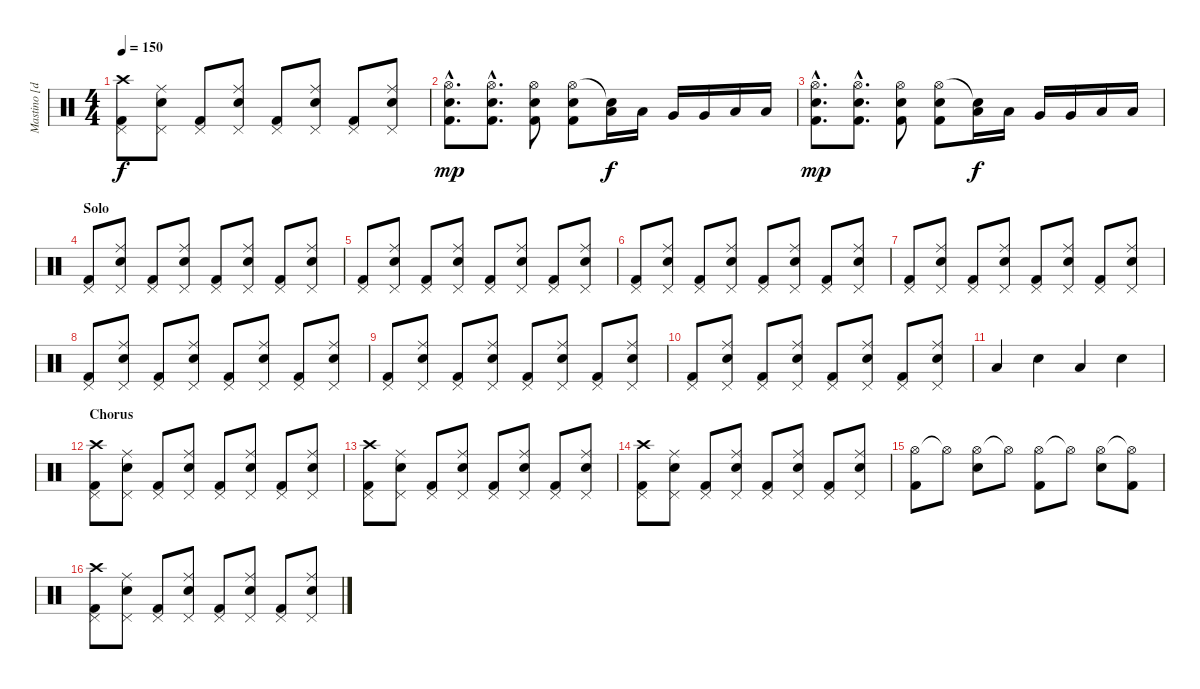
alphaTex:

\track ("Mastino [drums]" "Mastino [d") {instrument percussion}
\staff {score}
\articulation defaults
\ts (4 4)
\tempo 150
\clef neutral
\ks c
("Crash high (hit)" "Pedal Hi-Hat (hit)" "Kick (hit) 2").8{dy f} ("Ride (middle)" "Pedal Hi-Hat (hit)" "Electric Snare (hit)").8 ("Pedal Hi-Hat (hit)" "Kick (hit) 2").8 ("Ride (middle)" "Pedal Hi-Hat (hit)" "Electric Snare (hit)").8 ("Pedal Hi-Hat (hit)" "Kick (hit) 2").8 ("Ride (middle)" "Pedal Hi-Hat (hit)" "Electric Snare (hit)").8 ("Pedal Hi-Hat (hit)" "Kick (hit) 2").8 ("Ride (middle)" "Pedal Hi-Hat (hit)" "Electric Snare (hit)").8 |
("Hi-Hat (open)"{hac} "Electric Snare (hit)"{hac} "Kick (hit) 2"{hac}).8{d dy mp} ("Hi-Hat (open)"{hac} "Electric Snare (hit)"{hac} "Kick (hit) 2"{hac}).8{d} ("Hi-Hat (open)" "Electric Snare (hit)" "Kick (hit) 2").8 ("Hi-Hat (open)" "Kick (hit) 2" "Electric Snare (hit)").8 ("Snare (hit)"{t} "Low Tom (hit)").16{dy f} "Low Tom (hit)".16 "Very Low Tom (hit)".16 "Very Low Tom (hit)".16 "Low Floor Tom (hit)".16 "Low Floor Tom (hit)".16 |
("Hi-Hat (open)"{hac} "Electric Snare (hit)"{hac} "Kick (hit) 2"{hac}).8{d dy mp} ("Hi-Hat (open)"{hac} "Electric Snare (hit)"{hac} "Kick (hit) 2"{hac}).8{d} ("Hi-Hat (open)" "Electric Snare (hit)" "Kick (hit) 2").8 ("Hi-Hat (open)" "Kick (hit) 2" "Electric Snare (hit)").8 ("Snare (hit)"{t} "Low Tom (hit)").16{dy f} "Low Tom (hit)".16 "Very Low Tom (hit)".16 "Very Low Tom (hit)".16 "Low Floor Tom (hit)".16 "Low Floor Tom (hit)".16 |
\section ("" "Solo")
("Pedal Hi-Hat (hit)" "Kick (hit) 2").8 ("Ride (middle)" "Pedal Hi-Hat (hit)" "Electric Snare (hit)").8 ("Pedal Hi-Hat (hit)" "Kick (hit) 2").8 ("Ride (middle)" "Pedal Hi-Hat (hit)" "Electric Snare (hit)").8 ("Pedal Hi-Hat (hit)" "Kick (hit) 2").8 ("Ride (middle)" "Pedal Hi-Hat (hit)" "Electric Snare (hit)").8 ("Pedal Hi-Hat (hit)" "Kick (hit) 2").8 ("Ride (middle)" "Pedal Hi-Hat (hit)" "Electric Snare (hit)").8 |
("Pedal Hi-Hat (hit)" "Kick (hit) 2").8 ("Ride (middle)" "Pedal Hi-Hat (hit)" "Electric Snare (hit)").8 ("Pedal Hi-Hat (hit)" "Kick (hit) 2").8 ("Ride (middle)" "Pedal Hi-Hat (hit)" "Electric Snare (hit)").8 ("Pedal Hi-Hat (hit)" "Kick (hit) 2").8 ("Ride (middle)" "Pedal Hi-Hat (hit)" "Electric Snare (hit)").8 ("Pedal Hi-Hat (hit)" "Kick (hit) 2").8 ("Ride (middle)" "Pedal Hi-Hat (hit)" "Electric Snare (hit)").8 |
("Pedal Hi-Hat (hit)" "Kick (hit) 2").8 ("Ride (middle)" "Pedal Hi-Hat (hit)" "Electric Snare (hit)").8 ("Pedal Hi-Hat (hit)" "Kick (hit) 2").8 ("Ride (middle)" "Pedal Hi-Hat (hit)" "Electric Snare (hit)").8 ("Pedal Hi-Hat (hit)" "Kick (hit) 2").8 ("Ride (middle)" "Pedal Hi-Hat (hit)" "Electric Snare (hit)").8 ("Pedal Hi-Hat (hit)" "Kick (hit) 2").8 ("Ride (middle)" "Pedal Hi-Hat (hit)" "Electric Snare (hit)").8 |
("Pedal Hi-Hat (hit)" "Kick (hit) 2").8 ("Ride (middle)" "Pedal Hi-Hat (hit)" "Electric Snare (hit)").8 ("Pedal Hi-Hat (hit)" "Kick (hit) 2").8 ("Ride (middle)" "Pedal Hi-Hat (hit)" "Electric Snare (hit)").8 ("Pedal Hi-Hat (hit)" "Kick (hit) 2").8 ("Ride (middle)" "Pedal Hi-Hat (hit)" "Electric Snare (hit)").8 ("Pedal Hi-Hat (hit)" "Kick (hit) 2").8 ("Ride (middle)" "Pedal Hi-Hat (hit)" "Electric Snare (hit)").8 |
("Pedal Hi-Hat (hit)" "Kick (hit) 2").8 ("Ride (middle)" "Pedal Hi-Hat (hit)" "Electric Snare (hit)").8 ("Pedal Hi-Hat (hit)" "Kick (hit) 2").8 ("Ride (middle)" "Pedal Hi-Hat (hit)" "Electric Snare (hit)").8 ("Pedal Hi-Hat (hit)" "Kick (hit) 2").8 ("Ride (middle)" "Pedal Hi-Hat (hit)" "Electric Snare (hit)").8 ("Pedal Hi-Hat (hit)" "Kick (hit) 2").8 ("Ride (middle)" "Pedal Hi-Hat (hit)" "Electric Snare (hit)").8 |
("Pedal Hi-Hat (hit)" "Kick (hit) 2").8 ("Ride (middle)" "Pedal Hi-Hat (hit)" "Electric Snare (hit)").8 ("Pedal Hi-Hat (hit)" "Kick (hit) 2").8 ("Ride (middle)" "Pedal Hi-Hat (hit)" "Electric Snare (hit)").8 ("Pedal Hi-Hat (hit)" "Kick (hit) 2").8 ("Ride (middle)" "Pedal Hi-Hat (hit)" "Electric Snare (hit)").8 ("Pedal Hi-Hat (hit)" "Kick (hit) 2").8 ("Ride (middle)" "Pedal Hi-Hat (hit)" "Electric Snare (hit)").8 |
("Pedal Hi-Hat (hit)" "Kick (hit) 2").8 ("Ride (middle)" "Pedal Hi-Hat (hit)" "Electric Snare (hit)").8 ("Pedal Hi-Hat (hit)" "Kick (hit) 2").8 ("Ride (middle)" "Pedal Hi-Hat (hit)" "Electric Snare (hit)").8 ("Pedal Hi-Hat (hit)" "Kick (hit) 2").8 ("Ride (middle)" "Pedal Hi-Hat (hit)" "Electric Snare (hit)").8 ("Pedal Hi-Hat (hit)" "Kick (hit) 2").8 ("Ride (middle)" "Pedal Hi-Hat (hit)" "Electric Snare (hit)").8 |
"Low Tom (hit)".4 "Electric Snare (hit)".4 "Low Tom (hit)".4 "Electric Snare (hit)".4 |
\section ("" "Chorus")
("Crash high (hit)" "Pedal Hi-Hat (hit)" "Kick (hit) 2").8 ("Ride (middle)" "Pedal Hi-Hat (hit)" "Electric Snare (hit)").8 ("Pedal Hi-Hat (hit)" "Kick (hit) 2").8 ("Ride (middle)" "Pedal Hi-Hat (hit)" "Electric Snare (hit)").8 ("Pedal Hi-Hat (hit)" "Kick (hit) 2").8 ("Ride (middle)" "Pedal Hi-Hat (hit)" "Electric Snare (hit)").8 ("Pedal Hi-Hat (hit)" "Kick (hit) 2").8 ("Ride (middle)" "Pedal Hi-Hat (hit)" "Electric Snare (hit)").8 |
("Crash high (hit)" "Pedal Hi-Hat (hit)" "Kick (hit) 2").8 ("Ride (middle)" "Pedal Hi-Hat (hit)" "Electric Snare (hit)").8 ("Pedal Hi-Hat (hit)" "Kick (hit) 2").8 ("Ride (middle)" "Pedal Hi-Hat (hit)" "Electric Snare (hit)").8 ("Pedal Hi-Hat (hit)" "Kick (hit) 2").8 ("Ride (middle)" "Pedal Hi-Hat (hit)" "Electric Snare (hit)").8 ("Pedal Hi-Hat (hit)" "Kick (hit) 2").8 ("Ride (middle)" "Pedal Hi-Hat (hit)" "Electric Snare (hit)").8 |
("Crash high (hit)" "Pedal Hi-Hat (hit)" "Kick (hit) 2").8 ("Ride (middle)" "Pedal Hi-Hat (hit)" "Electric Snare (hit)").8 ("Pedal Hi-Hat (hit)" "Kick (hit) 2").8 ("Ride (middle)" "Pedal Hi-Hat (hit)" "Electric Snare (hit)").8 ("Pedal Hi-Hat (hit)" "Kick (hit) 2").8 ("Ride (middle)" "Pedal Hi-Hat (hit)" "Electric Snare (hit)").8 ("Pedal Hi-Hat (hit)" "Kick (hit) 2").8 ("Ride (middle)" "Pedal Hi-Hat (hit)" "Electric Snare (hit)").8 |
("Hi-Hat (open)" "Kick (hit) 2").8 "Hi-Hat (open)"{t}.8 ("Hi-Hat (open)" "Electric Snare (hit)").8 "Hi-Hat (open)"{t}.8 ("Hi-Hat (open)" "Kick (hit) 2").8 "Hi-Hat (open)"{t}.8 ("Hi-Hat (open)" "Electric Snare (hit)").8 ("Hi-Hat (open)"{t} "Kick (hit) 2").8 |
("Crash high (hit)" "Pedal Hi-Hat (hit)" "Kick (hit) 2").8 ("Ride (middle)" "Pedal Hi-Hat (hit)" "Electric Snare (hit)").8 ("Pedal Hi-Hat (hit)" "Kick (hit) 2").8 ("Ride (middle)" "Pedal Hi-Hat (hit)" "Electric Snare (hit)").8 ("Pedal Hi-Hat (hit)" "Kick (hit) 2").8 ("Ride (middle)" "Pedal Hi-Hat (hit)" "Electric Snare (hit)").8 ("Pedal Hi-Hat (hit)" "Kick (hit) 2").8 ("Ride (middle)" "Pedal Hi-Hat (hit)" "Electric Snare (hit)").8
